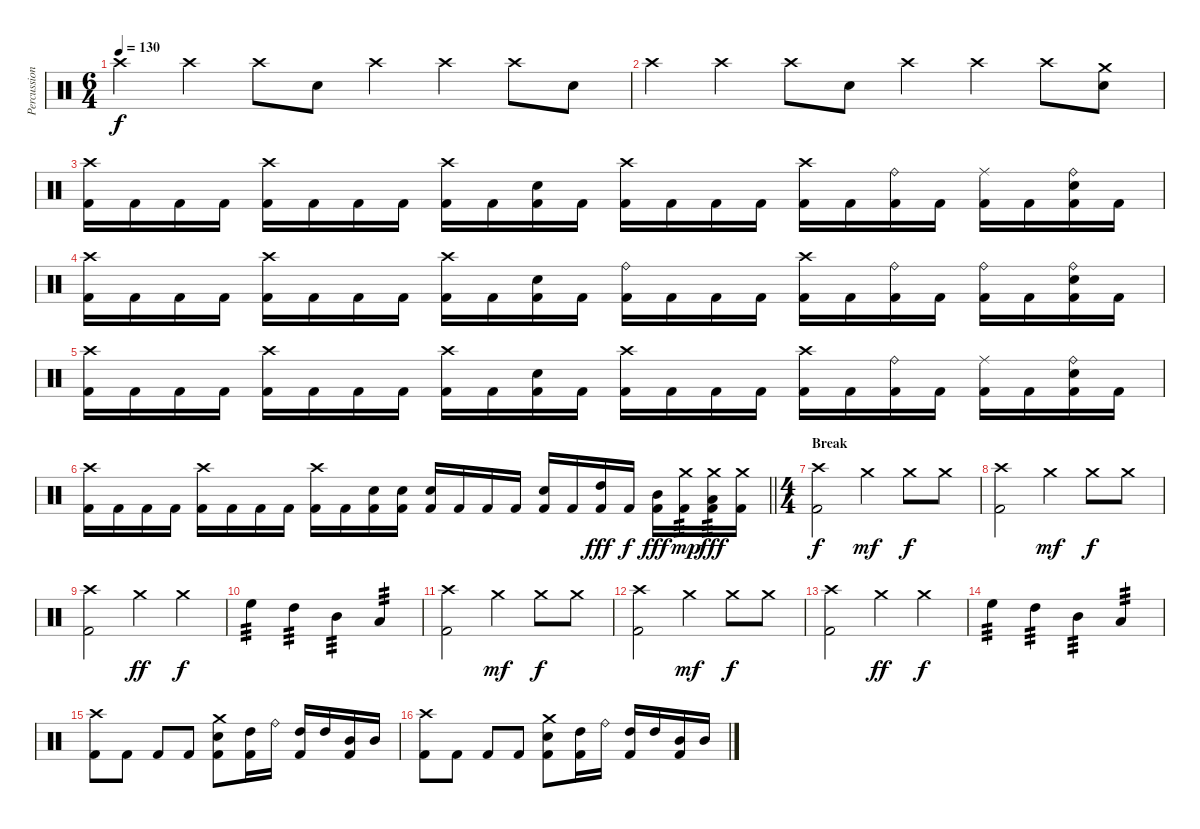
\track ("Percussion" "Percussion") {instrument percussion}
\staff {score}
\articulation defaults
\ts (6 4)
\tempo 130
\clef neutral
\ks c "Crash high (hit)".4{dy f} "Crash high (hit)".4 "Crash high (hit)".8 "Electric Snare (hit)".8 "Crash high (hit)".4 "Crash high (hit)".4 "Crash high (hit)".8 "Electric Snare (hit)".8
|
"Crash high (hit)".4 "Crash high (hit)".4 "Crash high (hit)".8 "Electric Snare (hit)".8 "Crash high (hit)".4 "Crash high (hit)".4 "Crash high (hit)".8 ("Crash medium (hit)" "Electric Snare (hit)").8 |
("Crash high (hit)" "Kick (hit) 2").16 "Kick (hit) 2".16 "Kick (hit) 2".16 "Kick (hit) 2".16 ("Crash high (hit)" "Kick (hit) 2").16 "Kick (hit) 2".16 "Kick (hit) 2".16 "Kick (hit) 2".16 ("Crash high (hit)" "Kick (hit) 2").16 "Kick (hit) 2".16 ("Electric Snare (hit)" "Kick (hit) 2").16 "Kick (hit) 2".16 ("Crash high (hit)" "Kick (hit) 2").16 "Kick (hit) 2".16 "Kick (hit) 2".16 "Kick (hit) 2".16 ("Crash high (hit)" "Kick (hit) 2").16 "Kick (hit) 2".16 ("Ride (bell)" "Kick (hit) 2").16 "Kick (hit) 2".16 ("Ride (middle)" "Kick (hit) 2").16 "Kick (hit) 2".16 ("Ride (bell)" "Electric Snare (hit)" "Kick (hit) 2").16 "Kick (hit) 2".16 |
("Crash high (hit)" "Kick (hit) 2").16 "Kick (hit) 2".16 "Kick (hit) 2".16 "Kick (hit) 2".16 ("Crash high (hit)" "Kick (hit) 2").16 "Kick (hit) 2".16 "Kick (hit) 2".16 "Kick (hit) 2".16 ("Crash high (hit)" "Kick (hit) 2").16 "Kick (hit) 2".16 ("Electric Snare (hit)" "Kick (hit) 2").16 "Kick (hit) 2".16 ("Ride (bell)" "Kick (hit) 2").16 "Kick (hit) 2".16 "Kick (hit) 2".16 "Kick (hit) 2".16 ("Crash high (hit)" "Kick (hit) 2").16 "Kick (hit) 2".16 ("Ride (bell)" "Kick (hit) 2").16 "Kick (hit) 2".16 ("Ride (bell)" "Kick (hit) 2").16 "Kick (hit) 2".16 ("Ride (bell)" "Electric Snare (hit)" "Kick (hit) 2").16 "Kick (hit) 2".16 |
("Crash high (hit)" "Kick (hit) 2").16 "Kick (hit) 2".16 "Kick (hit) 2".16 "Kick (hit) 2".16 ("Crash high (hit)" "Kick (hit) 2").16 "Kick (hit) 2".16 "Kick (hit) 2".16 "Kick (hit) 2".16 ("Crash high (hit)" "Kick (hit) 2").16 "Kick (hit) 2".16 ("Electric Snare (hit)" "Kick (hit) 2").16 "Kick (hit) 2".16 ("Crash high (hit)" "Kick (hit) 2").16 "Kick (hit) 2".16 "Kick (hit) 2".16 "Kick (hit) 2".16 ("Crash high (hit)" "Kick (hit) 2").16 "Kick (hit) 2".16 ("Ride (bell)" "Kick (hit) 2").16 "Kick (hit) 2".16 ("Ride (middle)" "Kick (hit) 2").16 "Kick (hit) 2".16 ("Ride (bell)" "Electric Snare (hit)" "Kick (hit) 2").16 "Kick (hit) 2".16 |
\barLineRight lightlight
("Crash high (hit)" "Kick (hit) 2").16 "Kick (hit) 2".16 "Kick (hit) 2".16 "Kick (hit) 2".16 ("Crash high (hit)" "Kick (hit) 2").16 "Kick (hit) 2".16 "Kick (hit) 2".16 "Kick (hit) 2".16 ("Crash high (hit)" "Kick (hit) 2").16 "Kick (hit) 2".16 ("Electric Snare (hit)" "Kick (hit) 2").16 ("Electric Snare (hit)" "Kick (hit) 2").16 ("Electric Snare (hit)" "Kick (hit) 2").16 "Kick (hit) 2".16 "Kick (hit) 2".16 "Kick (hit) 2".16 ("Electric Snare (hit)" "Kick (hit) 2").16 "Kick (hit) 2".16 ("High Tom (hit)" "Kick (hit) 2").16{dy fff} "Kick (hit) 2".16{dy f} ("Mid Tom (hit)" "Kick (hit) 2").16{dy fff} ("Crash medium (hit)" "Kick (hit) 2").16{tp 3 dy mp} ("Crash medium (hit)" "Low Tom (hit)" "Kick (hit) 2").16{tp 3 dy fff} ("Crash medium (hit)" "Kick (hit) 2").16 |
\ts (4 4)
\section ("" "Break")
("Crash high (hit)" "Kick (hit) 2").2{dy f} "Crash medium (hit)".4{dy mf} "Crash medium (hit)".8{dy f} "Crash medium (hit)".8 |
("Crash high (hit)" "Kick (hit) 2").2 "Crash medium (hit)".4{dy mf} "Crash medium (hit)".8{dy f} "Crash medium (hit)".8 |
("Crash high (hit)" "Kick (hit) 2").2 "Crash medium (hit)".4{dy ff} "Crash medium (hit)".4{dy f} |
"High Floor Tom (hit)".4{tp 3} "High Tom (hit)".4{tp 3} "Mid Tom (hit)".4{tp 3} "Low Tom (hit)".4{tp 3} |
("Crash high (hit)" "Kick (hit) 2").2 "Crash medium (hit)".4{dy mf} "Crash medium (hit)".8{dy f} "Crash medium (hit)".8 |
("Crash high (hit)" "Kick (hit) 2").2 "Crash medium (hit)".4{dy mf} "Crash medium (hit)".8{dy f} "Crash medium (hit)".8 |
("Crash high (hit)" "Kick (hit) 2").2 "Crash medium (hit)".4{dy ff} "Crash medium (hit)".4{dy f} |
"High Floor Tom (hit)".4{tp 3} "High Tom (hit)".4{tp 3} "Mid Tom (hit)".4{tp 3} "Low Tom (hit)".4{tp 3} |
("Crash high (hit)" "Kick (hit) 2").8 "Kick (hit) 2".8 "Kick (hit) 2".8 "Kick (hit) 2".8 ("Crash medium (hit)" "Snare (hit) 2" "Kick (hit) 2").8 ("High Tom (hit)" "Kick (hit) 2").16 "Ride (bell)".16 ("High Tom (hit)" "Kick (hit) 2").16 "High Tom (hit)".16 ("Mid Tom (hit)" "Kick (hit) 2").16 "Mid Tom (hit)".16 |
("Crash high (hit)" "Kick (hit) 2").8 "Kick (hit) 2".8 "Kick (hit) 2".8 "Kick (hit) 2".8 ("Crash medium (hit)" "Snare (hit) 2" "Kick (hit) 2").8 ("High Tom (hit)" "Kick (hit) 2").16 "Ride (bell)".16 ("High Tom (hit)" "Kick (hit) 2").16 "High Tom (hit)".16 ("Mid Tom (hit)" "Kick (hit) 2").16 "Mid Tom (hit)".16
